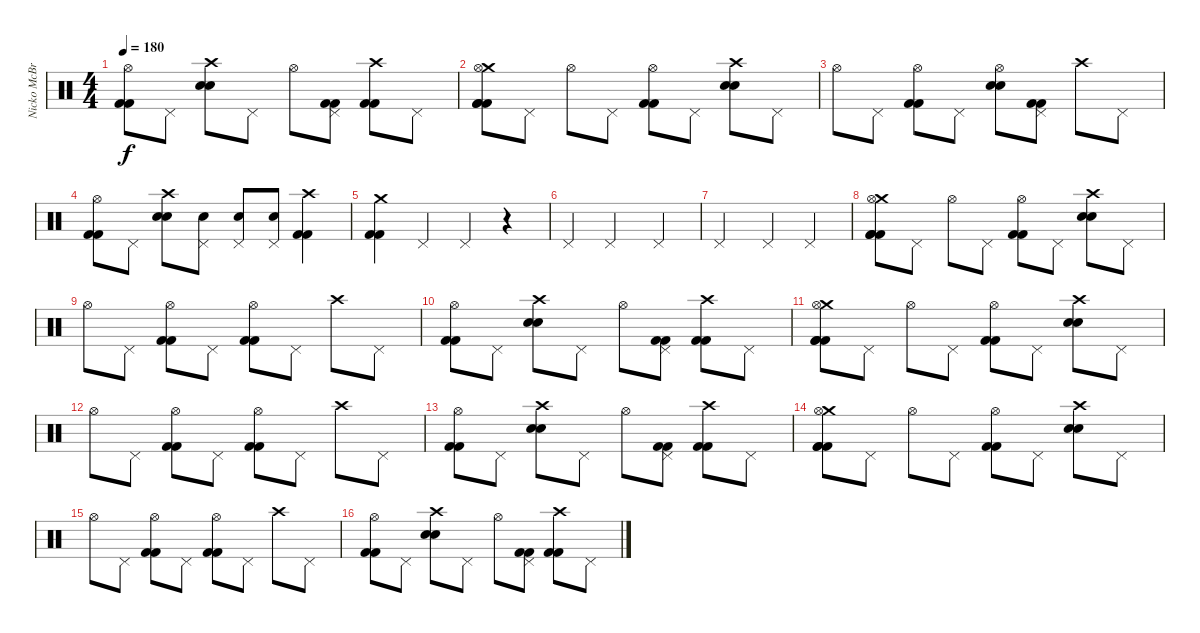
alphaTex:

\track ("Nicko McBrain" "Nicko McBr") {instrument percussion}
\staff {score}
\articulation defaults
\ts (4 4)
\tempo 180
\clef neutral
\ks c
("Hi-Hat (open)" "Kick (hit) 2" "Kick (hit) 2").8{dy f} "Pedal Hi-Hat (hit)".8 ("Crash high (hit)" "Snare (hit) 2" "Snare (hit) 2").8 "Pedal Hi-Hat (hit)".8 "Hi-Hat (open)".8 ("Pedal Hi-Hat (hit)" "Kick (hit) 2" "Kick (hit) 2").8 ("Crash high (hit)" "Kick (hit) 2" "Kick (hit) 2").8 "Pedal Hi-Hat (hit)".8 |
("Crash medium (hit)" "Hi-Hat (open)" "Kick (hit) 2" "Kick (hit) 2" "Kick (hit) 2").8 "Pedal Hi-Hat (hit)".8 "Hi-Hat (open)".8 "Pedal Hi-Hat (hit)".8 ("Hi-Hat (open)" "Kick (hit) 2" "Kick (hit) 2").8 "Pedal Hi-Hat (hit)".8 ("Crash high (hit)" "Snare (hit) 2" "Snare (hit) 2").8 "Pedal Hi-Hat (hit)".8 |
"Hi-Hat (open)".8 "Pedal Hi-Hat (hit)".8 ("Hi-Hat (open)" "Kick (hit) 2" "Kick (hit) 2").8 "Pedal Hi-Hat (hit)".8 ("Hi-Hat (open)" "Snare (hit) 2" "Snare (hit) 2").8 ("Pedal Hi-Hat (hit)" "Kick (hit) 2" "Kick (hit) 2").8 "Crash high (hit)".8 "Pedal Hi-Hat (hit)".8 |
("Hi-Hat (open)" "Kick (hit) 2" "Kick (hit) 2").8 "Pedal Hi-Hat (hit)".8 ("Crash high (hit)" "Snare (hit) 2" "Snare (hit) 2").8 ("Pedal Hi-Hat (hit)" "Snare (hit) 2").8 ("Pedal Hi-Hat (hit)" "Snare (hit) 2").8 ("Pedal Hi-Hat (hit)" "Snare (hit) 2").8 ("Crash high (hit)" "Kick (hit) 2" "Kick (hit) 2").4 |
("Crash medium (hit)" "Kick (hit) 2" "Kick (hit) 2").4 "Pedal Hi-Hat (hit)".4 "Pedal Hi-Hat (hit)".4 r.4 |
"Pedal Hi-Hat (hit)".4 "Pedal Hi-Hat (hit)".2 "Pedal Hi-Hat (hit)".4 |
"Pedal Hi-Hat (hit)".2 "Pedal Hi-Hat (hit)".4 "Pedal Hi-Hat (hit)".4 |
("Crash medium (hit)" "Hi-Hat (open)" "Kick (hit) 2" "Kick (hit) 2" "Kick (hit) 2").8 "Pedal Hi-Hat (hit)".8 "Hi-Hat (open)".8 "Pedal Hi-Hat (hit)".8 ("Hi-Hat (open)" "Kick (hit) 2" "Kick (hit) 2").8 "Pedal Hi-Hat (hit)".8 ("Crash high (hit)" "Snare (hit) 2" "Snare (hit) 2").8 "Pedal Hi-Hat (hit)".8 |
"Hi-Hat (open)".8 "Pedal Hi-Hat (hit)".8 ("Hi-Hat (open)" "Kick (hit) 2" "Kick (hit) 2").8 "Pedal Hi-Hat (hit)".8 ("Hi-Hat (open)" "Kick (hit) 2" "Kick (hit) 2").8 "Pedal Hi-Hat (hit)".8 "Crash high (hit)".8 "Pedal Hi-Hat (hit)".8 |
("Hi-Hat (open)" "Kick (hit) 2" "Kick (hit) 2").8 "Pedal Hi-Hat (hit)".8 ("Crash high (hit)" "Snare (hit) 2" "Snare (hit) 2").8 "Pedal Hi-Hat (hit)".8 "Hi-Hat (open)".8 ("Pedal Hi-Hat (hit)" "Kick (hit) 2" "Kick (hit) 2").8 ("Crash high (hit)" "Kick (hit) 2" "Kick (hit) 2").8 "Pedal Hi-Hat (hit)".8 |
("Crash medium (hit)" "Hi-Hat (open)" "Kick (hit) 2" "Kick (hit) 2" "Kick (hit) 2").8 "Pedal Hi-Hat (hit)".8 "Hi-Hat (open)".8 "Pedal Hi-Hat (hit)".8 ("Hi-Hat (open)" "Kick (hit) 2" "Kick (hit) 2").8 "Pedal Hi-Hat (hit)".8 ("Crash high (hit)" "Snare (hit) 2" "Snare (hit) 2").8 "Pedal Hi-Hat (hit)".8 |
"Hi-Hat (open)".8 "Pedal Hi-Hat (hit)".8 ("Hi-Hat (open)" "Kick (hit) 2" "Kick (hit) 2").8 "Pedal Hi-Hat (hit)".8 ("Hi-Hat (open)" "Kick (hit) 2" "Kick (hit) 2").8 "Pedal Hi-Hat (hit)".8 "Crash high (hit)".8 "Pedal Hi-Hat (hit)".8 |
("Hi-Hat (open)" "Kick (hit) 2" "Kick (hit) 2").8 "Pedal Hi-Hat (hit)".8 ("Crash high (hit)" "Snare (hit) 2" "Snare (hit) 2").8 "Pedal Hi-Hat (hit)".8 "Hi-Hat (open)".8 ("Pedal Hi-Hat (hit)" "Kick (hit) 2" "Kick (hit) 2").8 ("Crash high (hit)" "Kick (hit) 2" "Kick (hit) 2").8 "Pedal Hi-Hat (hit)".8 |
("Crash medium (hit)" "Hi-Hat (open)" "Kick (hit) 2" "Kick (hit) 2" "Kick (hit) 2").8 "Pedal Hi-Hat (hit)".8 "Hi-Hat (open)".8 "Pedal Hi-Hat (hit)".8 ("Hi-Hat (open)" "Kick (hit) 2" "Kick (hit) 2").8 "Pedal Hi-Hat (hit)".8 ("Crash high (hit)" "Snare (hit) 2" "Snare (hit) 2").8 "Pedal Hi-Hat (hit)".8 |
"Hi-Hat (open)".8 "Pedal Hi-Hat (hit)".8 ("Hi-Hat (open)" "Kick (hit) 2" "Kick (hit) 2").8 "Pedal Hi-Hat (hit)".8 ("Hi-Hat (open)" "Kick (hit) 2" "Kick (hit) 2").8 "Pedal Hi-Hat (hit)".8 "Crash high (hit)".8 "Pedal Hi-Hat (hit)".8 |
("Hi-Hat (open)" "Kick (hit) 2" "Kick (hit) 2").8 "Pedal Hi-Hat (hit)".8 ("Crash high (hit)" "Snare (hit) 2" "Snare (hit) 2").8 "Pedal Hi-Hat (hit)".8 "Hi-Hat (open)".8 ("Pedal Hi-Hat (hit)" "Kick (hit) 2" "Kick (hit) 2").8 ("Crash high (hit)" "Kick (hit) 2" "Kick (hit) 2").8 "Pedal Hi-Hat (hit)".8
